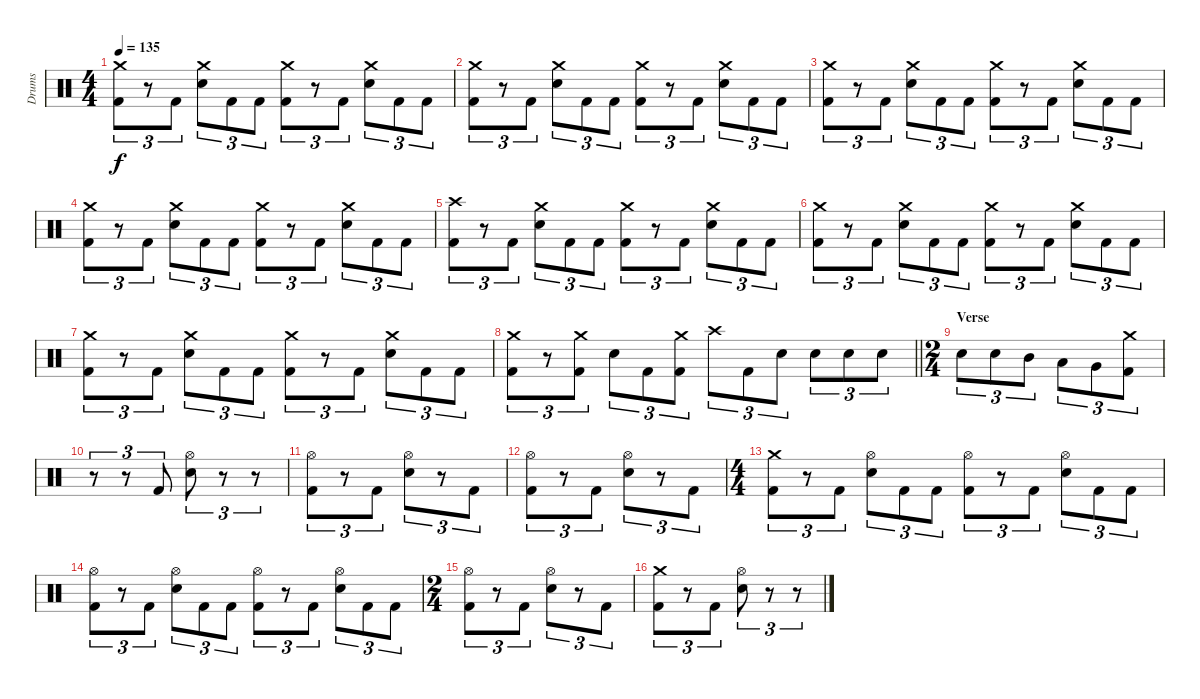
\track ("Drums" "Drums") {instrument percussion}
\staff {score}
\articulation defaults
\ts (4 4)
\tempo 135
\clef neutral
\ks c
("Crash medium (hit)" "Kick (hit) 2").8{tu (3 2) dy f} r.8{tu (3 2)} "Kick (hit) 2".8{tu (3 2)} ("Crash medium (hit)" "Electric Snare (hit)").8{tu (3 2)} "Kick (hit) 2".8{tu (3 2)} "Kick (hit) 2".8{tu (3 2)} ("Crash medium (hit)" "Kick (hit) 2").8{tu (3 2)} r.8{tu (3 2)} "Kick (hit) 2".8{tu (3 2)} ("Crash medium (hit)" "Electric Snare (hit)").8{tu (3 2)} "Kick (hit) 2".8{tu (3 2)} "Kick (hit) 2".8{tu (3 2)} |
("Crash medium (hit)" "Kick (hit) 2").8{tu (3 2)} r.8{tu (3 2)} "Kick (hit) 2".8{tu (3 2)} ("Crash medium (hit)" "Electric Snare (hit)").8{tu (3 2)} "Kick (hit) 2".8{tu (3 2)} "Kick (hit) 2".8{tu (3 2)} ("Crash medium (hit)" "Kick (hit) 2").8{tu (3 2)} r.8{tu (3 2)} "Kick (hit) 2".8{tu (3 2)} ("Crash medium (hit)" "Electric Snare (hit)").8{tu (3 2)} "Kick (hit) 2".8{tu (3 2)} "Kick (hit) 2".8{tu (3 2)} |
("Crash medium (hit)" "Kick (hit) 2").8{tu (3 2)} r.8{tu (3 2)} "Kick (hit) 2".8{tu (3 2)} ("Crash medium (hit)" "Electric Snare (hit)").8{tu (3 2)} "Kick (hit) 2".8{tu (3 2)} "Kick (hit) 2".8{tu (3 2)} ("Crash medium (hit)" "Kick (hit) 2").8{tu (3 2)} r.8{tu (3 2)} "Kick (hit) 2".8{tu (3 2)} ("Crash medium (hit)" "Electric Snare (hit)").8{tu (3 2)} "Kick (hit) 2".8{tu (3 2)} "Kick (hit) 2".8{tu (3 2)} |
("Crash medium (hit)" "Kick (hit) 2").8{tu (3 2)} r.8{tu (3 2)} "Kick (hit) 2".8{tu (3 2)} ("Crash medium (hit)" "Electric Snare (hit)").8{tu (3 2)} "Kick (hit) 2".8{tu (3 2)} "Kick (hit) 2".8{tu (3 2)} ("Crash medium (hit)" "Kick (hit) 2").8{tu (3 2)} r.8{tu (3 2)} "Kick (hit) 2".8{tu (3 2)} ("Crash medium (hit)" "Electric Snare (hit)").8{tu (3 2)} "Kick (hit) 2".8{tu (3 2)} "Kick (hit) 2".8{tu (3 2)} |
("Crash high (hit)" "Kick (hit) 2").8{tu (3 2)} r.8{tu (3 2)} "Kick (hit) 2".8{tu (3 2)} ("Crash medium (hit)" "Electric Snare (hit)").8{tu (3 2)} "Kick (hit) 2".8{tu (3 2)} "Kick (hit) 2".8{tu (3 2)} ("Crash medium (hit)" "Kick (hit) 2").8{tu (3 2)} r.8{tu (3 2)} "Kick (hit) 2".8{tu (3 2)} ("Crash medium (hit)" "Electric Snare (hit)").8{tu (3 2)} "Kick (hit) 2".8{tu (3 2)} "Kick (hit) 2".8{tu (3 2)} |
("Crash medium (hit)" "Kick (hit) 2").8{tu (3 2)} r.8{tu (3 2)} "Kick (hit) 2".8{tu (3 2)} ("Crash medium (hit)" "Electric Snare (hit)").8{tu (3 2)} "Kick (hit) 2".8{tu (3 2)} "Kick (hit) 2".8{tu (3 2)} ("Crash medium (hit)" "Kick (hit) 2").8{tu (3 2)} r.8{tu (3 2)} "Kick (hit) 2".8{tu (3 2)} ("Crash medium (hit)" "Electric Snare (hit)").8{tu (3 2)} "Kick (hit) 2".8{tu (3 2)} "Kick (hit) 2".8{tu (3 2)} |
("Crash medium (hit)" "Kick (hit) 2").8{tu (3 2)} r.8{tu (3 2)} "Kick (hit) 2".8{tu (3 2)} ("Crash medium (hit)" "Electric Snare (hit)").8{tu (3 2)} "Kick (hit) 2".8{tu (3 2)} "Kick (hit) 2".8{tu (3 2)} ("Crash medium (hit)" "Kick (hit) 2").8{tu (3 2)} r.8{tu (3 2)} "Kick (hit) 2".8{tu (3 2)} ("Crash medium (hit)" "Electric Snare (hit)").8{tu (3 2)} "Kick (hit) 2".8{tu (3 2)} "Kick (hit) 2".8{tu (3 2)} |
\barLineRight lightlight
("Crash medium (hit)" "Kick (hit) 2").8{tu (3 2)} r.8{tu (3 2)} ("Crash medium (hit)" "Kick (hit) 2").8{tu (3 2)} "Electric Snare (hit)".8{tu (3 2)} "Kick (hit) 2".8{tu (3 2)} ("Crash medium (hit)" "Kick (hit) 2").8{tu (3 2)} "Crash high (hit)".8{tu (3 2)} "Kick (hit) 2".8{tu (3 2)} "Electric Snare (hit)".8{tu (3 2)} "Electric Snare (hit)".8{tu (3 2)} "Electric Snare (hit)".8{tu (3 2)} "Electric Snare (hit)".8{tu (3 2)} |
\ts (2 4)
\section ("" "Verse")
"Electric Snare (hit)".8{tu (3 2)} "Electric Snare (hit)".8{tu (3 2)} "Mid Tom (hit)".8{tu (3 2)} "Low Tom (hit)".8{tu (3 2)} "Very Low Tom (hit)".8{tu (3 2)} ("Crash medium (hit)" "Kick (hit) 2").8{tu (3 2)} |
r.8{tu (3 2)} r.8{tu (3 2)} "Kick (hit) 2".8{tu (3 2)} ("Hi-Hat (open)" "Electric Snare (hit)").8{tu (3 2)} r.8{tu (3 2)} r.8{tu (3 2)} |
("Hi-Hat (open)" "Kick (hit) 2").8{tu (3 2)} r.8{tu (3 2)} "Kick (hit) 2".8{tu (3 2)} ("Hi-Hat (open)" "Electric Snare (hit)").8{tu (3 2)} r.8{tu (3 2)} "Kick (hit) 2".8{tu (3 2)} |
("Hi-Hat (open)" "Kick (hit) 2").8{tu (3 2)} r.8{tu (3 2)} "Kick (hit) 2".8{tu (3 2)} ("Hi-Hat (open)" "Electric Snare (hit)").8{tu (3 2)} r.8{tu (3 2)} "Kick (hit) 2".8{tu (3 2)} |
\ts (4 4)
("Crash medium (hit)" "Kick (hit) 2").8{tu (3 2)} r.8{tu (3 2)} "Kick (hit) 2".8{tu (3 2)} ("Hi-Hat (open)" "Electric Snare (hit)").8{tu (3 2)} "Kick (hit) 2".8{tu (3 2)} "Kick (hit) 2".8{tu (3 2)} ("Hi-Hat (open)" "Kick (hit) 2").8{tu (3 2)} r.8{tu (3 2)} "Kick (hit) 2".8{tu (3 2)} ("Hi-Hat (open)" "Electric Snare (hit)").8{tu (3 2)} "Kick (hit) 2".8{tu (3 2)} "Kick (hit) 2".8{tu (3 2)} |
("Hi-Hat (open)" "Kick (hit) 2").8{tu (3 2)} r.8{tu (3 2)} "Kick (hit) 2".8{tu (3 2)} ("Hi-Hat (open)" "Electric Snare (hit)").8{tu (3 2)} "Kick (hit) 2".8{tu (3 2)} "Kick (hit) 2".8{tu (3 2)} ("Hi-Hat (open)" "Kick (hit) 2").8{tu (3 2)} r.8{tu (3 2)} "Kick (hit) 2".8{tu (3 2)} ("Hi-Hat (open)" "Electric Snare (hit)").8{tu (3 2)} "Kick (hit) 2".8{tu (3 2)} "Kick (hit) 2".8{tu (3 2)} |
\ts (2 4)
("Hi-Hat (open)" "Kick (hit) 2").8{tu (3 2)} r.8{tu (3 2)} "Kick (hit) 2".8{tu (3 2)} ("Hi-Hat (open)" "Electric Snare (hit)").8{tu (3 2)} r.8{tu (3 2)} "Kick (hit) 2".8{tu (3 2)} |
("Crash medium (hit)" "Kick (hit) 2").8{tu (3 2)} r.8{tu (3 2)} "Kick (hit) 2".8{tu (3 2)} ("Hi-Hat (open)" "Electric Snare (hit)").8{tu (3 2)} r.8{tu (3 2)} r.8{tu (3 2)}
